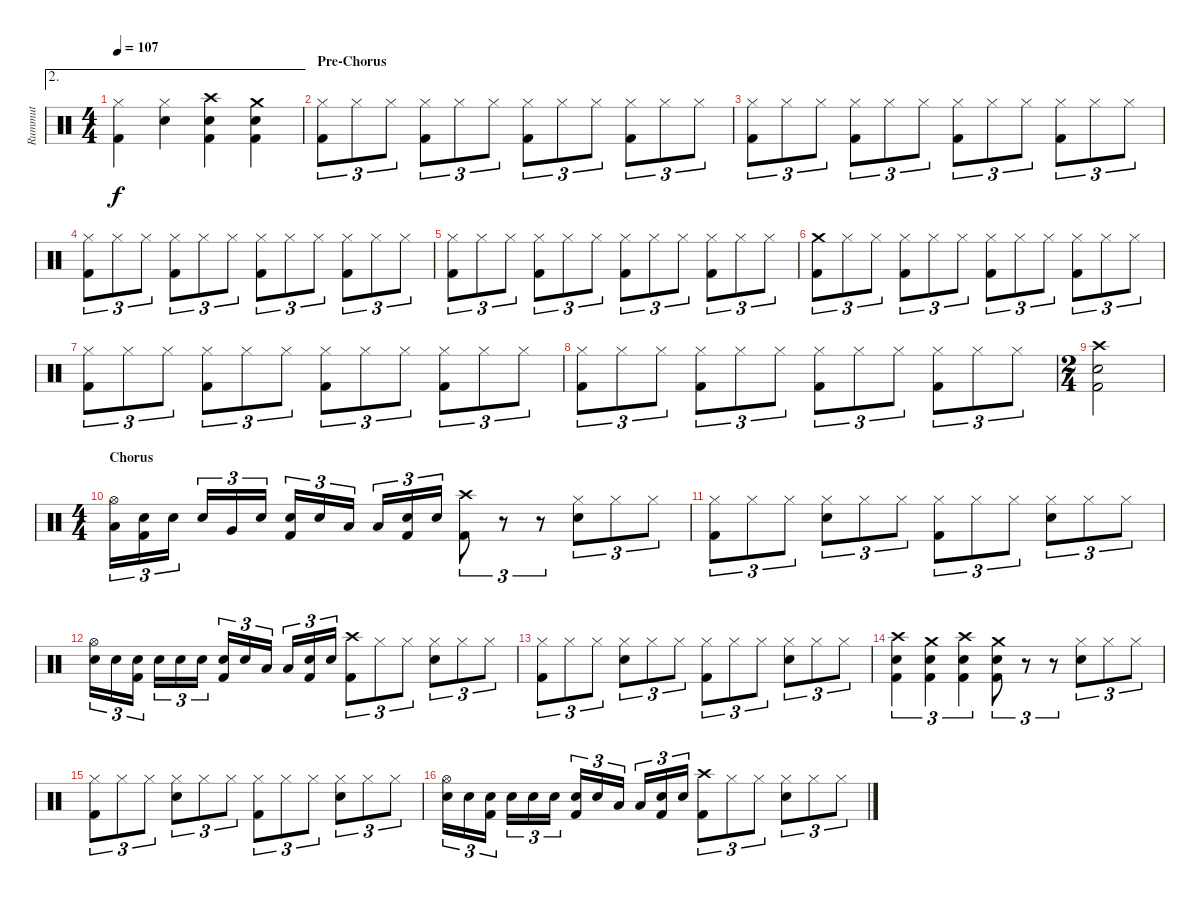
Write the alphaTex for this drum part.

\track ("Rummut" "Rummut") {instrument percussion}
\staff {score}
\articulation defaults
\ae 2
\ts (4 4)
\tempo 107
\clef neutral
\ks c
("Hi-Hat (closed)" "Kick (hit) 2").4{dy f} ("Hi-Hat (closed)" "Snare (hit) 2").4 ("Crash high (hit)" "Snare (hit) 2" "Kick (hit) 2").4 ("Crash medium (hit)" "Snare (hit) 2" "Kick (hit) 2").4 |
\section ("" "Pre-Chorus")
("Hi-Hat (closed)" "Kick (hit) 2").8{tu (3 2)} "Hi-Hat (closed)".8{tu (3 2)} "Hi-Hat (closed)".8{tu (3 2)} ("Hi-Hat (closed)" "Kick (hit) 2").8{tu (3 2)} "Hi-Hat (closed)".8{tu (3 2)} "Hi-Hat (closed)".8{tu (3 2)} ("Hi-Hat (closed)" "Kick (hit) 2").8{tu (3 2)} "Hi-Hat (closed)".8{tu (3 2)} "Hi-Hat (closed)".8{tu (3 2)} ("Hi-Hat (closed)" "Kick (hit) 2").8{tu (3 2)} "Hi-Hat (closed)".8{tu (3 2)} "Hi-Hat (closed)".8{tu (3 2)} |
("Hi-Hat (closed)" "Kick (hit) 2").8{tu (3 2)} "Hi-Hat (closed)".8{tu (3 2)} "Hi-Hat (closed)".8{tu (3 2)} ("Hi-Hat (closed)" "Kick (hit) 2").8{tu (3 2)} "Hi-Hat (closed)".8{tu (3 2)} "Hi-Hat (closed)".8{tu (3 2)} ("Hi-Hat (closed)" "Kick (hit) 2").8{tu (3 2)} "Hi-Hat (closed)".8{tu (3 2)} "Hi-Hat (closed)".8{tu (3 2)} ("Hi-Hat (closed)" "Kick (hit) 2").8{tu (3 2)} "Hi-Hat (closed)".8{tu (3 2)} "Hi-Hat (closed)".8{tu (3 2)} |
("Hi-Hat (closed)" "Kick (hit) 2").8{tu (3 2)} "Hi-Hat (closed)".8{tu (3 2)} "Hi-Hat (closed)".8{tu (3 2)} ("Hi-Hat (closed)" "Kick (hit) 2").8{tu (3 2)} "Hi-Hat (closed)".8{tu (3 2)} "Hi-Hat (closed)".8{tu (3 2)} ("Hi-Hat (closed)" "Kick (hit) 2").8{tu (3 2)} "Hi-Hat (closed)".8{tu (3 2)} "Hi-Hat (closed)".8{tu (3 2)} ("Hi-Hat (closed)" "Kick (hit) 2").8{tu (3 2)} "Hi-Hat (closed)".8{tu (3 2)} "Hi-Hat (closed)".8{tu (3 2)} |
("Hi-Hat (closed)" "Kick (hit) 2").8{tu (3 2)} "Hi-Hat (closed)".8{tu (3 2)} "Hi-Hat (closed)".8{tu (3 2)} ("Hi-Hat (closed)" "Kick (hit) 2").8{tu (3 2)} "Hi-Hat (closed)".8{tu (3 2)} "Hi-Hat (closed)".8{tu (3 2)} ("Hi-Hat (closed)" "Kick (hit) 2").8{tu (3 2)} "Hi-Hat (closed)".8{tu (3 2)} "Hi-Hat (closed)".8{tu (3 2)} ("Hi-Hat (closed)" "Kick (hit) 2").8{tu (3 2)} "Hi-Hat (closed)".8{tu (3 2)} "Hi-Hat (closed)".8{tu (3 2)} |
("Crash medium (hit)" "Kick (hit) 2").8{tu (3 2)} "Hi-Hat (closed)".8{tu (3 2)} "Hi-Hat (closed)".8{tu (3 2)} ("Hi-Hat (closed)" "Kick (hit) 2").8{tu (3 2)} "Hi-Hat (closed)".8{tu (3 2)} "Hi-Hat (closed)".8{tu (3 2)} ("Hi-Hat (closed)" "Kick (hit) 2").8{tu (3 2)} "Hi-Hat (closed)".8{tu (3 2)} "Hi-Hat (closed)".8{tu (3 2)} ("Hi-Hat (closed)" "Kick (hit) 2").8{tu (3 2)} "Hi-Hat (closed)".8{tu (3 2)} "Hi-Hat (closed)".8{tu (3 2)} |
("Hi-Hat (closed)" "Kick (hit) 2").8{tu (3 2)} "Hi-Hat (closed)".8{tu (3 2)} "Hi-Hat (closed)".8{tu (3 2)} ("Hi-Hat (closed)" "Kick (hit) 2").8{tu (3 2)} "Hi-Hat (closed)".8{tu (3 2)} "Hi-Hat (closed)".8{tu (3 2)} ("Hi-Hat (closed)" "Kick (hit) 2").8{tu (3 2)} "Hi-Hat (closed)".8{tu (3 2)} "Hi-Hat (closed)".8{tu (3 2)} ("Hi-Hat (closed)" "Kick (hit) 2").8{tu (3 2)} "Hi-Hat (closed)".8{tu (3 2)} "Hi-Hat (closed)".8{tu (3 2)} |
("Hi-Hat (closed)" "Kick (hit) 2").8{tu (3 2)} "Hi-Hat (closed)".8{tu (3 2)} "Hi-Hat (closed)".8{tu (3 2)} ("Hi-Hat (closed)" "Kick (hit) 2").8{tu (3 2)} "Hi-Hat (closed)".8{tu (3 2)} "Hi-Hat (closed)".8{tu (3 2)} ("Hi-Hat (closed)" "Kick (hit) 2").8{tu (3 2)} "Hi-Hat (closed)".8{tu (3 2)} "Hi-Hat (closed)".8{tu (3 2)} ("Hi-Hat (closed)" "Kick (hit) 2").8{tu (3 2)} "Hi-Hat (closed)".8{tu (3 2)} "Hi-Hat (closed)".8{tu (3 2)} |
\ts (2 4)
("Crash high (hit)" "Snare (hit) 2" "Kick (hit) 2").2 |
\ts (4 4)
\section ("" "Chorus")
("Hi-Hat (open)" "Low Tom (hit)").16{tu (3 2)} ("Snare (hit)" "Kick (hit) 2").16{tu (3 2)} "Snare (hit)".16{tu (3 2)} "Snare (hit)".16{tu (3 2)} "Very Low Tom (hit)".16{tu (3 2)} "Snare (hit)".16{tu (3 2)} ("Snare (hit)" "Kick (hit) 2").16{tu (3 2)} "Snare (hit)".16{tu (3 2)} "Low Floor Tom (hit)".16{tu (3 2)} "Low Floor Tom (hit)".16{tu (3 2)} ("Snare (hit)" "Kick (hit) 2").16{tu (3 2)} "Snare (hit)".16{tu (3 2)} ("Crash high (hit)" "Kick (hit) 2").8{tu (3 2)} r.8{tu (3 2)} r.8{tu (3 2)} ("Hi-Hat (closed)" "Snare (hit) 2").8{tu (3 2)} "Hi-Hat (closed)".8{tu (3 2)} "Hi-Hat (closed)".8{tu (3 2)} |
("Hi-Hat (closed)" "Kick (hit) 2").8{tu (3 2)} "Hi-Hat (closed)".8{tu (3 2)} "Hi-Hat (closed)".8{tu (3 2)} ("Hi-Hat (closed)" "Snare (hit) 2").8{tu (3 2)} "Hi-Hat (closed)".8{tu (3 2)} "Hi-Hat (closed)".8{tu (3 2)} ("Hi-Hat (closed)" "Kick (hit) 2").8{tu (3 2)} "Hi-Hat (closed)".8{tu (3 2)} "Hi-Hat (closed)".8{tu (3 2)} ("Hi-Hat (closed)" "Snare (hit) 2").8{tu (3 2)} "Hi-Hat (closed)".8{tu (3 2)} "Hi-Hat (closed)".8{tu (3 2)} |
("Hi-Hat (open)" "Snare (hit) 2").16{tu (3 2)} "Snare (hit)".16{tu (3 2)} ("Snare (hit)" "Kick (hit) 2").16{tu (3 2)} "Snare (hit)".16{tu (3 2)} "Snare (hit) 2".16{tu (3 2)} "Snare (hit)".16{tu (3 2)} ("Snare (hit)" "Kick (hit) 2").16{tu (3 2)} "Snare (hit)".16{tu (3 2)} "Low Tom (hit)".16{tu (3 2)} "Low Tom (hit)".16{tu (3 2)} ("Snare (hit)" "Kick (hit) 2").16{tu (3 2)} "Snare (hit)".16{tu (3 2)} ("Crash high (hit)" "Kick (hit) 2").8{tu (3 2)} "Hi-Hat (closed)".8{tu (3 2)} "Hi-Hat (closed)".8{tu (3 2)} ("Hi-Hat (closed)" "Snare (hit) 2").8{tu (3 2)} "Hi-Hat (closed)".8{tu (3 2)} "Hi-Hat (closed)".8{tu (3 2)} |
("Hi-Hat (closed)" "Kick (hit) 2").8{tu (3 2)} "Hi-Hat (closed)".8{tu (3 2)} "Hi-Hat (closed)".8{tu (3 2)} ("Hi-Hat (closed)" "Snare (hit) 2").8{tu (3 2)} "Hi-Hat (closed)".8{tu (3 2)} "Hi-Hat (closed)".8{tu (3 2)} ("Hi-Hat (closed)" "Kick (hit) 2").8{tu (3 2)} "Hi-Hat (closed)".8{tu (3 2)} "Hi-Hat (closed)".8{tu (3 2)} ("Hi-Hat (closed)" "Snare (hit) 2").8{tu (3 2)} "Hi-Hat (closed)".8{tu (3 2)} "Hi-Hat (closed)".8{tu (3 2)} |
("Crash high (hit)" "Snare (hit) 2" "Kick (hit) 2").4{tu (3 2)} ("Crash medium (hit)" "Snare (hit) 2" "Kick (hit) 2").4{tu (3 2)} ("Crash high (hit)" "Snare (hit) 2" "Kick (hit) 2").4{tu (3 2)} ("Crash medium (hit)" "Snare (hit) 2" "Kick (hit) 2").8{tu (3 2)} r.8{tu (3 2)} r.8{tu (3 2)} ("Hi-Hat (closed)" "Snare (hit) 2").8{tu (3 2)} "Hi-Hat (closed)".8{tu (3 2)} "Hi-Hat (closed)".8{tu (3 2)} |
("Hi-Hat (closed)" "Kick (hit) 2").8{tu (3 2)} "Hi-Hat (closed)".8{tu (3 2)} "Hi-Hat (closed)".8{tu (3 2)} ("Hi-Hat (closed)" "Snare (hit) 2").8{tu (3 2)} "Hi-Hat (closed)".8{tu (3 2)} "Hi-Hat (closed)".8{tu (3 2)} ("Hi-Hat (closed)" "Kick (hit) 2").8{tu (3 2)} "Hi-Hat (closed)".8{tu (3 2)} "Hi-Hat (closed)".8{tu (3 2)} ("Hi-Hat (closed)" "Snare (hit) 2").8{tu (3 2)} "Hi-Hat (closed)".8{tu (3 2)} "Hi-Hat (closed)".8{tu (3 2)} |
("Hi-Hat (open)" "Snare (hit) 2").16{tu (3 2)} "Snare (hit)".16{tu (3 2)} ("Snare (hit)" "Kick (hit) 2").16{tu (3 2)} "Snare (hit)".16{tu (3 2)} "Snare (hit) 2".16{tu (3 2)} "Snare (hit)".16{tu (3 2)} ("Snare (hit)" "Kick (hit) 2").16{tu (3 2)} "Snare (hit)".16{tu (3 2)} "Low Tom (hit)".16{tu (3 2)} "Low Tom (hit)".16{tu (3 2)} ("Snare (hit)" "Kick (hit) 2").16{tu (3 2)} "Snare (hit)".16{tu (3 2)} ("Crash high (hit)" "Kick (hit) 2").8{tu (3 2)} "Hi-Hat (closed)".8{tu (3 2)} "Hi-Hat (closed)".8{tu (3 2)} ("Hi-Hat (closed)" "Snare (hit) 2").8{tu (3 2)} "Hi-Hat (closed)".8{tu (3 2)} "Hi-Hat (closed)".8{tu (3 2)}
